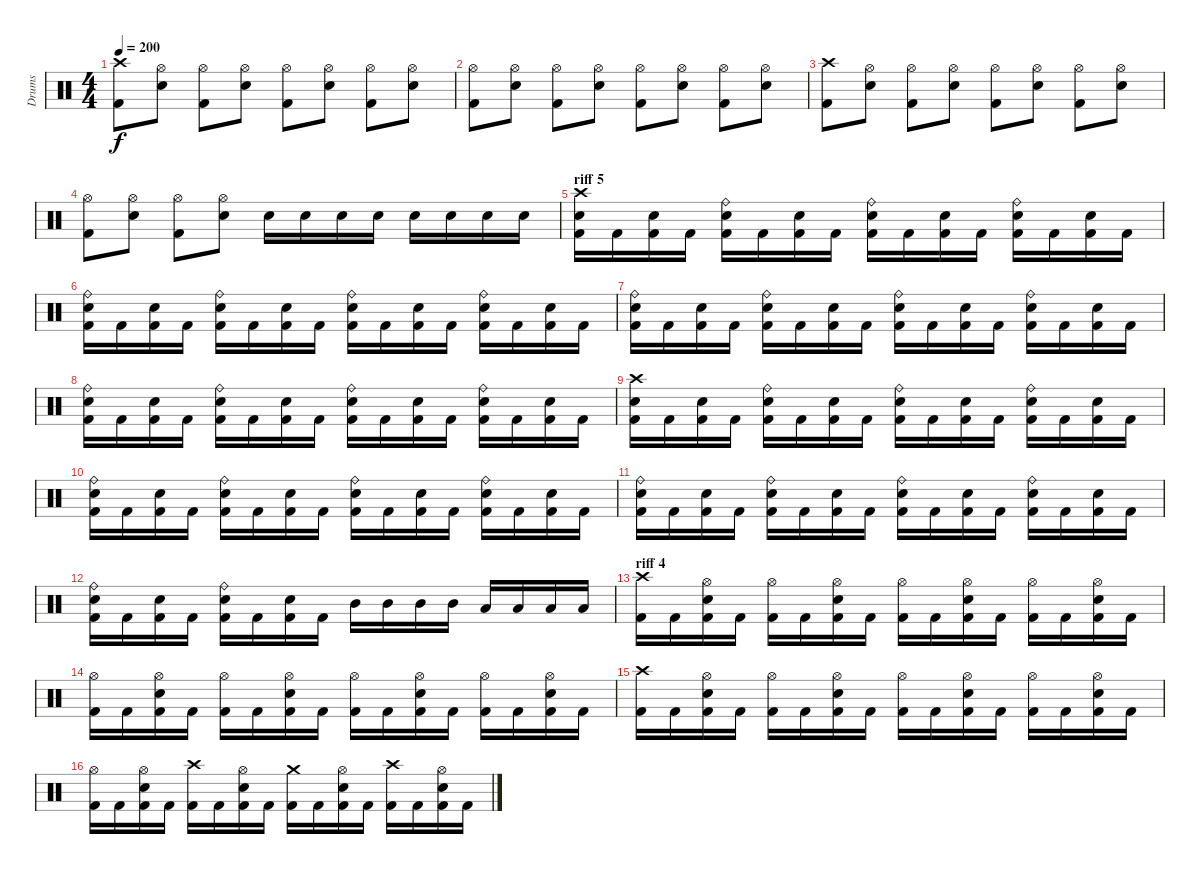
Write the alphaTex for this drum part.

\track ("Drums" "Drums") {instrument percussion}
\staff {score}
\articulation defaults
\ts (4 4)
\tempo 200
\clef neutral
\ks c
("Crash high (hit)" "Kick (hit) 2").8{dy f} ("Hi-Hat (open)" "Electric Snare (hit)").8 ("Hi-Hat (open)" "Kick (hit) 2").8 ("Hi-Hat (open)" "Electric Snare (hit)").8 ("Hi-Hat (open)" "Kick (hit) 2").8 ("Hi-Hat (open)" "Electric Snare (hit)").8 ("Hi-Hat (open)" "Kick (hit) 2").8 ("Hi-Hat (open)" "Electric Snare (hit)").8 |
("Hi-Hat (open)" "Kick (hit) 2").8 ("Hi-Hat (open)" "Electric Snare (hit)").8 ("Hi-Hat (open)" "Kick (hit) 2").8 ("Hi-Hat (open)" "Electric Snare (hit)").8 ("Hi-Hat (open)" "Kick (hit) 2").8 ("Hi-Hat (open)" "Electric Snare (hit)").8 ("Hi-Hat (open)" "Kick (hit) 2").8 ("Hi-Hat (open)" "Electric Snare (hit)").8 |
("Crash high (hit)" "Kick (hit) 2").8 ("Hi-Hat (open)" "Electric Snare (hit)").8 ("Hi-Hat (open)" "Kick (hit) 2").8 ("Hi-Hat (open)" "Electric Snare (hit)").8 ("Hi-Hat (open)" "Kick (hit) 2").8 ("Hi-Hat (open)" "Electric Snare (hit)").8 ("Hi-Hat (open)" "Kick (hit) 2").8 ("Hi-Hat (open)" "Electric Snare (hit)").8 |
("Hi-Hat (open)" "Kick (hit) 2").8 ("Hi-Hat (open)" "Electric Snare (hit)").8 ("Hi-Hat (open)" "Kick (hit) 2").8 ("Hi-Hat (open)" "Electric Snare (hit)").8 "Electric Snare (hit)".16 "Electric Snare (hit)".16 "Electric Snare (hit)".16 "Electric Snare (hit)".16 "Electric Snare (hit)".16 "Electric Snare (hit)".16 "Electric Snare (hit)".16 "Electric Snare (hit)".16 |
\section ("" "riff 5")
("Crash high (hit)" "Electric Snare (hit)" "Kick (hit) 2").16 "Kick (hit) 2".16 ("Electric Snare (hit)" "Kick (hit) 2").16 "Kick (hit) 2".16 ("Ride (bell)" "Electric Snare (hit)" "Kick (hit) 2").16 "Kick (hit) 2".16 ("Electric Snare (hit)" "Kick (hit) 2").16 "Kick (hit) 2".16 ("Ride (bell)" "Electric Snare (hit)" "Kick (hit) 2").16 "Kick (hit) 2".16 ("Electric Snare (hit)" "Kick (hit) 2").16 "Kick (hit) 2".16 ("Ride (bell)" "Electric Snare (hit)" "Kick (hit) 2").16 "Kick (hit) 2".16 ("Electric Snare (hit)" "Kick (hit) 2").16 "Kick (hit) 2".16 |
("Ride (bell)" "Electric Snare (hit)" "Kick (hit) 2").16 "Kick (hit) 2".16 ("Electric Snare (hit)" "Kick (hit) 2").16 "Kick (hit) 2".16 ("Ride (bell)" "Electric Snare (hit)" "Kick (hit) 2").16 "Kick (hit) 2".16 ("Electric Snare (hit)" "Kick (hit) 2").16 "Kick (hit) 2".16 ("Ride (bell)" "Electric Snare (hit)" "Kick (hit) 2").16 "Kick (hit) 2".16 ("Electric Snare (hit)" "Kick (hit) 2").16 "Kick (hit) 2".16 ("Ride (bell)" "Electric Snare (hit)" "Kick (hit) 2").16 "Kick (hit) 2".16 ("Electric Snare (hit)" "Kick (hit) 2").16 "Kick (hit) 2".16 |
("Ride (bell)" "Electric Snare (hit)" "Kick (hit) 2").16 "Kick (hit) 2".16 ("Electric Snare (hit)" "Kick (hit) 2").16 "Kick (hit) 2".16 ("Ride (bell)" "Electric Snare (hit)" "Kick (hit) 2").16 "Kick (hit) 2".16 ("Electric Snare (hit)" "Kick (hit) 2").16 "Kick (hit) 2".16 ("Ride (bell)" "Electric Snare (hit)" "Kick (hit) 2").16 "Kick (hit) 2".16 ("Electric Snare (hit)" "Kick (hit) 2").16 "Kick (hit) 2".16 ("Ride (bell)" "Electric Snare (hit)" "Kick (hit) 2").16 "Kick (hit) 2".16 ("Electric Snare (hit)" "Kick (hit) 2").16 "Kick (hit) 2".16 |
("Ride (bell)" "Electric Snare (hit)" "Kick (hit) 2").16 "Kick (hit) 2".16 ("Electric Snare (hit)" "Kick (hit) 2").16 "Kick (hit) 2".16 ("Ride (bell)" "Electric Snare (hit)" "Kick (hit) 2").16 "Kick (hit) 2".16 ("Electric Snare (hit)" "Kick (hit) 2").16 "Kick (hit) 2".16 ("Ride (bell)" "Electric Snare (hit)" "Kick (hit) 2").16 "Kick (hit) 2".16 ("Electric Snare (hit)" "Kick (hit) 2").16 "Kick (hit) 2".16 ("Ride (bell)" "Electric Snare (hit)" "Kick (hit) 2").16 "Kick (hit) 2".16 ("Electric Snare (hit)" "Kick (hit) 2").16 "Kick (hit) 2".16 |
("Crash high (hit)" "Electric Snare (hit)" "Kick (hit) 2").16 "Kick (hit) 2".16 ("Electric Snare (hit)" "Kick (hit) 2").16 "Kick (hit) 2".16 ("Ride (bell)" "Electric Snare (hit)" "Kick (hit) 2").16 "Kick (hit) 2".16 ("Electric Snare (hit)" "Kick (hit) 2").16 "Kick (hit) 2".16 ("Ride (bell)" "Electric Snare (hit)" "Kick (hit) 2").16 "Kick (hit) 2".16 ("Electric Snare (hit)" "Kick (hit) 2").16 "Kick (hit) 2".16 ("Ride (bell)" "Electric Snare (hit)" "Kick (hit) 2").16 "Kick (hit) 2".16 ("Electric Snare (hit)" "Kick (hit) 2").16 "Kick (hit) 2".16 |
("Ride (bell)" "Electric Snare (hit)" "Kick (hit) 2").16 "Kick (hit) 2".16 ("Electric Snare (hit)" "Kick (hit) 2").16 "Kick (hit) 2".16 ("Ride (bell)" "Electric Snare (hit)" "Kick (hit) 2").16 "Kick (hit) 2".16 ("Electric Snare (hit)" "Kick (hit) 2").16 "Kick (hit) 2".16 ("Ride (bell)" "Electric Snare (hit)" "Kick (hit) 2").16 "Kick (hit) 2".16 ("Electric Snare (hit)" "Kick (hit) 2").16 "Kick (hit) 2".16 ("Ride (bell)" "Electric Snare (hit)" "Kick (hit) 2").16 "Kick (hit) 2".16 ("Electric Snare (hit)" "Kick (hit) 2").16 "Kick (hit) 2".16 |
("Ride (bell)" "Electric Snare (hit)" "Kick (hit) 2").16 "Kick (hit) 2".16 ("Electric Snare (hit)" "Kick (hit) 2").16 "Kick (hit) 2".16 ("Ride (bell)" "Electric Snare (hit)" "Kick (hit) 2").16 "Kick (hit) 2".16 ("Electric Snare (hit)" "Kick (hit) 2").16 "Kick (hit) 2".16 ("Ride (bell)" "Electric Snare (hit)" "Kick (hit) 2").16 "Kick (hit) 2".16 ("Electric Snare (hit)" "Kick (hit) 2").16 "Kick (hit) 2".16 ("Ride (bell)" "Electric Snare (hit)" "Kick (hit) 2").16 "Kick (hit) 2".16 ("Electric Snare (hit)" "Kick (hit) 2").16 "Kick (hit) 2".16 |
("Ride (bell)" "Electric Snare (hit)" "Kick (hit) 2").16 "Kick (hit) 2".16 ("Electric Snare (hit)" "Kick (hit) 2").16 "Kick (hit) 2".16 ("Ride (bell)" "Electric Snare (hit)" "Kick (hit) 2").16 "Kick (hit) 2".16 ("Electric Snare (hit)" "Kick (hit) 2").16 "Kick (hit) 2".16 "Mid Tom (hit)".16 "Mid Tom (hit)".16 "Mid Tom (hit)".16 "Mid Tom (hit)".16 "Low Tom (hit)".16 "Low Tom (hit)".16 "Low Tom (hit)".16 "Low Tom (hit)".16 |
\section ("" "riff 4")
("Crash high (hit)" "Kick (hit) 2").16 "Kick (hit) 2".16 ("Hi-Hat (open)" "Electric Snare (hit)" "Kick (hit) 2").16 "Kick (hit) 2".16 ("Hi-Hat (open)" "Kick (hit) 2").16 "Kick (hit) 2".16 ("Hi-Hat (open)" "Electric Snare (hit)" "Kick (hit) 2").16 "Kick (hit) 2".16 ("Hi-Hat (open)" "Kick (hit) 2").16 "Kick (hit) 2".16 ("Hi-Hat (open)" "Electric Snare (hit)" "Kick (hit) 2").16 "Kick (hit) 2".16 ("Hi-Hat (open)" "Kick (hit) 2").16 "Kick (hit) 2".16 ("Hi-Hat (open)" "Electric Snare (hit)" "Kick (hit) 2").16 "Kick (hit) 2".16 |
("Hi-Hat (open)" "Kick (hit) 2").16 "Kick (hit) 2".16 ("Hi-Hat (open)" "Electric Snare (hit)" "Kick (hit) 2").16 "Kick (hit) 2".16 ("Hi-Hat (open)" "Kick (hit) 2").16 "Kick (hit) 2".16 ("Hi-Hat (open)" "Electric Snare (hit)" "Kick (hit) 2").16 "Kick (hit) 2".16 ("Hi-Hat (open)" "Kick (hit) 2").16 "Kick (hit) 2".16 ("Hi-Hat (open)" "Electric Snare (hit)" "Kick (hit) 2").16 "Kick (hit) 2".16 ("Hi-Hat (open)" "Kick (hit) 2").16 "Kick (hit) 2".16 ("Hi-Hat (open)" "Electric Snare (hit)" "Kick (hit) 2").16 "Kick (hit) 2".16 |
("Crash high (hit)" "Kick (hit) 2").16 "Kick (hit) 2".16 ("Hi-Hat (open)" "Electric Snare (hit)" "Kick (hit) 2").16 "Kick (hit) 2".16 ("Hi-Hat (open)" "Kick (hit) 2").16 "Kick (hit) 2".16 ("Hi-Hat (open)" "Electric Snare (hit)" "Kick (hit) 2").16 "Kick (hit) 2".16 ("Hi-Hat (open)" "Kick (hit) 2").16 "Kick (hit) 2".16 ("Hi-Hat (open)" "Electric Snare (hit)" "Kick (hit) 2").16 "Kick (hit) 2".16 ("Hi-Hat (open)" "Kick (hit) 2").16 "Kick (hit) 2".16 ("Hi-Hat (open)" "Electric Snare (hit)" "Kick (hit) 2").16 "Kick (hit) 2".16 |
("Hi-Hat (open)" "Kick (hit) 2").16 "Kick (hit) 2".16 ("Hi-Hat (open)" "Electric Snare (hit)" "Kick (hit) 2").16 "Kick (hit) 2".16 ("Crash high (hit)" "Kick (hit) 2").16 "Kick (hit) 2".16 ("Hi-Hat (open)" "Electric Snare (hit)" "Kick (hit) 2").16 "Kick (hit) 2".16 ("Crash medium (hit)" "Kick (hit) 2").16 "Kick (hit) 2".16 ("Hi-Hat (open)" "Electric Snare (hit)" "Kick (hit) 2").16 "Kick (hit) 2".16 ("Crash high (hit)" "Kick (hit) 2").16 "Kick (hit) 2".16 ("Hi-Hat (open)" "Electric Snare (hit)" "Kick (hit) 2").16 "Kick (hit) 2".16
